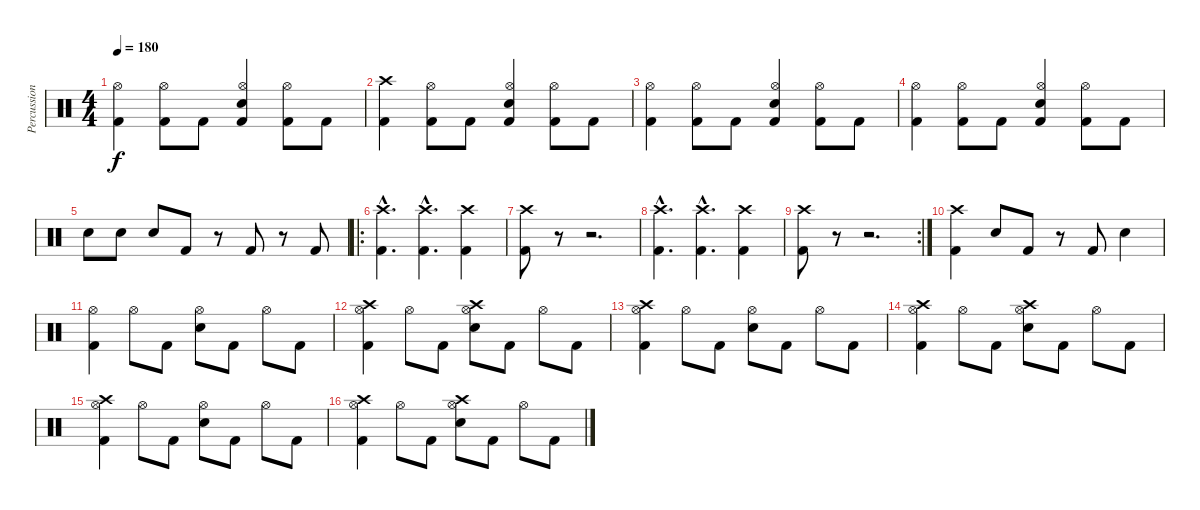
\track ("Percussion" "Percussion") {instrument percussion}
\staff {score}
\articulation defaults
\ts (4 4)
\tempo 180
\clef neutral
\ks c
("Kick (hit) 2" "Hi-Hat (open)").4{dy f} ("Kick (hit) 2" "Hi-Hat (open)").8 "Kick (hit) 2".8 ("Kick (hit) 2" "Hi-Hat (open)" "Electric Snare (hit)").4 ("Kick (hit) 2" "Hi-Hat (open)").8 "Kick (hit) 2".8 |
("Kick (hit) 2" "Crash high (hit)").4 ("Kick (hit) 2" "Hi-Hat (open)").8 "Kick (hit) 2".8 ("Kick (hit) 2" "Hi-Hat (open)" "Electric Snare (hit)").4 ("Kick (hit) 2" "Hi-Hat (open)").8 "Kick (hit) 2".8 |
("Kick (hit) 2" "Hi-Hat (open)").4 ("Kick (hit) 2" "Hi-Hat (open)").8 "Kick (hit) 2".8 ("Kick (hit) 2" "Hi-Hat (open)" "Electric Snare (hit)").4 ("Kick (hit) 2" "Hi-Hat (open)").8 "Kick (hit) 2".8 |
("Kick (hit) 2" "Hi-Hat (open)").4 ("Kick (hit) 2" "Hi-Hat (open)").8 "Kick (hit) 2".8 ("Kick (hit) 2" "Hi-Hat (open)" "Electric Snare (hit)").4 ("Kick (hit) 2" "Hi-Hat (open)").8 "Kick (hit) 2".8 |
"Electric Snare (hit)".8 "Electric Snare (hit)".8 "Electric Snare (hit)".8 "Kick (hit) 2".8 r.8 "Kick (hit) 2".8 r.8 "Kick (hit) 2".8 |
\ro
("Crash high (hit)"{hac} "Kick (hit) 2"{hac}).4{d} ("Crash high (hit)"{hac} "Kick (hit) 2"{hac}).4{d} ("Crash high (hit)" "Kick (hit) 2").4 |
("Crash high (hit)" "Kick (hit) 2").8 r.8 r.2{d} |
("Crash high (hit)"{hac} "Kick (hit) 2"{hac}).4{d} ("Crash high (hit)"{hac} "Kick (hit) 2"{hac}).4{d} ("Crash high (hit)" "Kick (hit) 2").4 |
\rc 2
("Crash high (hit)" "Kick (hit) 2").8 r.8 r.2{d} |
("Crash high (hit)" "Kick (hit) 2").4 "Electric Snare (hit)".8 "Kick (hit) 2".8 r.8 "Kick (hit) 2".8 "Electric Snare (hit)".4 |
("Hi-Hat (open)" "Kick (hit) 2").4 "Hi-Hat (open)".8 "Kick (hit) 2".8 ("Hi-Hat (open)" "Electric Snare (hit)").8 "Kick (hit) 2".8 "Hi-Hat (open)".8 "Kick (hit) 2".8 |
("Hi-Hat (open)" "Kick (hit) 2" "Crash high (hit)").4 "Hi-Hat (open)".8 "Kick (hit) 2".8 ("Hi-Hat (open)" "Electric Snare (hit)" "Crash high (hit)").8 "Kick (hit) 2".8 "Hi-Hat (open)".8 "Kick (hit) 2".8 |
("Hi-Hat (open)" "Kick (hit) 2" "Crash high (hit)").4 "Hi-Hat (open)".8 "Kick (hit) 2".8 ("Hi-Hat (open)" "Electric Snare (hit)").8 "Kick (hit) 2".8 "Hi-Hat (open)".8 "Kick (hit) 2".8 |
("Hi-Hat (open)" "Kick (hit) 2" "Crash high (hit)").4 "Hi-Hat (open)".8 "Kick (hit) 2".8 ("Hi-Hat (open)" "Electric Snare (hit)" "Crash high (hit)").8 "Kick (hit) 2".8 "Hi-Hat (open)".8 "Kick (hit) 2".8 |
("Hi-Hat (open)" "Kick (hit) 2" "Crash high (hit)").4 "Hi-Hat (open)".8 "Kick (hit) 2".8 ("Hi-Hat (open)" "Electric Snare (hit)").8 "Kick (hit) 2".8 "Hi-Hat (open)".8 "Kick (hit) 2".8 |
("Hi-Hat (open)" "Kick (hit) 2" "Crash high (hit)").4 "Hi-Hat (open)".8 "Kick (hit) 2".8 ("Hi-Hat (open)" "Electric Snare (hit)" "Crash high (hit)").8 "Kick (hit) 2".8 "Hi-Hat (open)".8 "Kick (hit) 2".8
